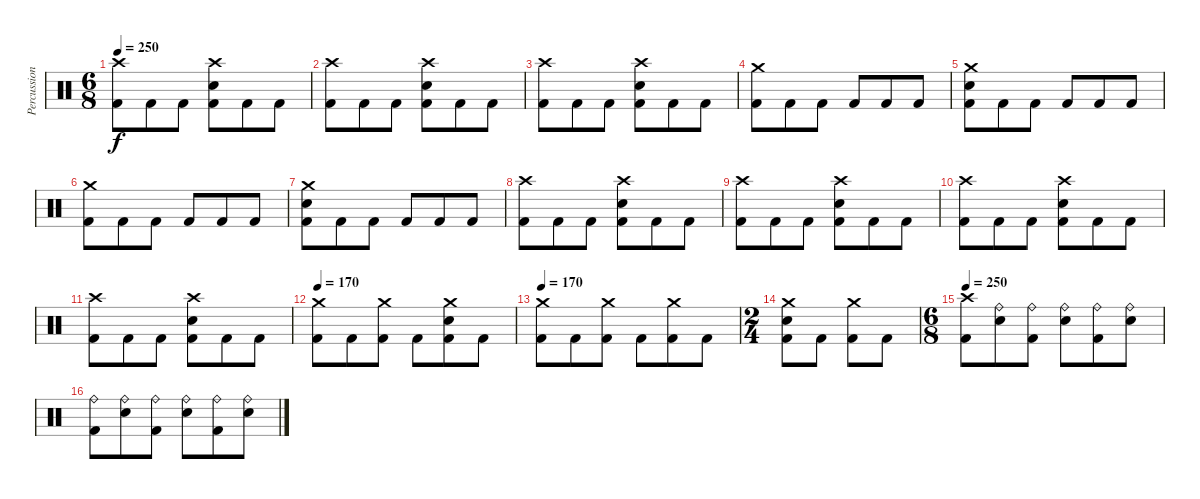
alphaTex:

\track ("Percussion" "Percussion") {instrument percussion}
\staff {score}
\articulation defaults
\ts (6 8)
\tempo 250
\clef neutral
\ks c
("Crash high (hit)" "Kick (hit) 2").8{dy f} "Kick (hit) 2".8 "Kick (hit) 2".8 ("Crash high (hit)" "Electric Snare (hit)" "Kick (hit) 2").8 "Kick (hit) 2".8 "Kick (hit) 2".8 |
("Crash high (hit)" "Kick (hit) 2").8 "Kick (hit) 2".8 "Kick (hit) 2".8 ("Crash high (hit)" "Electric Snare (hit)" "Kick (hit) 2").8 "Kick (hit) 2".8 "Kick (hit) 2".8 |
("Crash high (hit)" "Kick (hit) 2").8 "Kick (hit) 2".8 "Kick (hit) 2".8 ("Crash high (hit)" "Electric Snare (hit)" "Kick (hit) 2").8 "Kick (hit) 2".8 "Kick (hit) 2".8 |
("Crash medium (hit)" "Kick (hit) 2").8 "Kick (hit) 2".8 "Kick (hit) 2".8 "Kick (hit) 2".8 "Kick (hit) 2".8 "Kick (hit) 2".8 |
("Crash medium (hit)" "Electric Snare (hit)" "Kick (hit) 2").8 "Kick (hit) 2".8 "Kick (hit) 2".8 "Kick (hit) 2".8 "Kick (hit) 2".8 "Kick (hit) 2".8 |
("Crash medium (hit)" "Kick (hit) 2").8 "Kick (hit) 2".8 "Kick (hit) 2".8 "Kick (hit) 2".8 "Kick (hit) 2".8 "Kick (hit) 2".8 |
("Crash medium (hit)" "Electric Snare (hit)" "Kick (hit) 2").8 "Kick (hit) 2".8 "Kick (hit) 2".8 "Kick (hit) 2".8 "Kick (hit) 2".8 "Kick (hit) 2".8 |
("Crash high (hit)" "Kick (hit) 2").8 "Kick (hit) 2".8 "Kick (hit) 2".8 ("Crash high (hit)" "Electric Snare (hit)" "Kick (hit) 2").8 "Kick (hit) 2".8 "Kick (hit) 2".8 |
("Crash high (hit)" "Kick (hit) 2").8 "Kick (hit) 2".8 "Kick (hit) 2".8 ("Crash high (hit)" "Electric Snare (hit)" "Kick (hit) 2").8 "Kick (hit) 2".8 "Kick (hit) 2".8 |
("Crash high (hit)" "Kick (hit) 2").8 "Kick (hit) 2".8 "Kick (hit) 2".8 ("Crash high (hit)" "Electric Snare (hit)" "Kick (hit) 2").8 "Kick (hit) 2".8 "Kick (hit) 2".8 |
("Crash high (hit)" "Kick (hit) 2").8 "Kick (hit) 2".8 "Kick (hit) 2".8 ("Crash high (hit)" "Electric Snare (hit)" "Kick (hit) 2").8 "Kick (hit) 2".8 "Kick (hit) 2".8 |
\tempo 170
("Crash medium (hit)" "Kick (hit) 2").8 "Kick (hit) 2".8 ("Crash medium (hit)" "Kick (hit) 2").8 "Kick (hit) 2".8 ("Crash medium (hit)" "Electric Snare (hit)" "Kick (hit) 2").8 "Kick (hit) 2".8 |
\tempo 170
("Crash medium (hit)" "Kick (hit) 2").8 "Kick (hit) 2".8 ("Crash medium (hit)" "Kick (hit) 2").8 "Kick (hit) 2".8 ("Crash medium (hit)" "Kick (hit) 2").8 "Kick (hit) 2".8 |
\ts (2 4)
("Crash medium (hit)" "Electric Snare (hit)" "Kick (hit) 2").8 "Kick (hit) 2".8 ("Crash medium (hit)" "Kick (hit) 2").8 "Kick (hit) 2".8 |
\ts (6 8)
\tempo 250
("Crash high (hit)" "Kick (hit) 2").8 ("Ride (bell)" "Electric Snare (hit)").8 ("Ride (bell)" "Kick (hit) 2").8 ("Ride (bell)" "Electric Snare (hit)").8 ("Ride (bell)" "Kick (hit) 2").8 ("Ride (bell)" "Electric Snare (hit)").8 |
("Ride (bell)" "Kick (hit) 2").8 ("Ride (bell)" "Electric Snare (hit)").8 ("Ride (bell)" "Kick (hit) 2").8 ("Ride (bell)" "Electric Snare (hit)").8 ("Ride (bell)" "Kick (hit) 2").8 ("Ride (bell)" "Electric Snare (hit)").8
